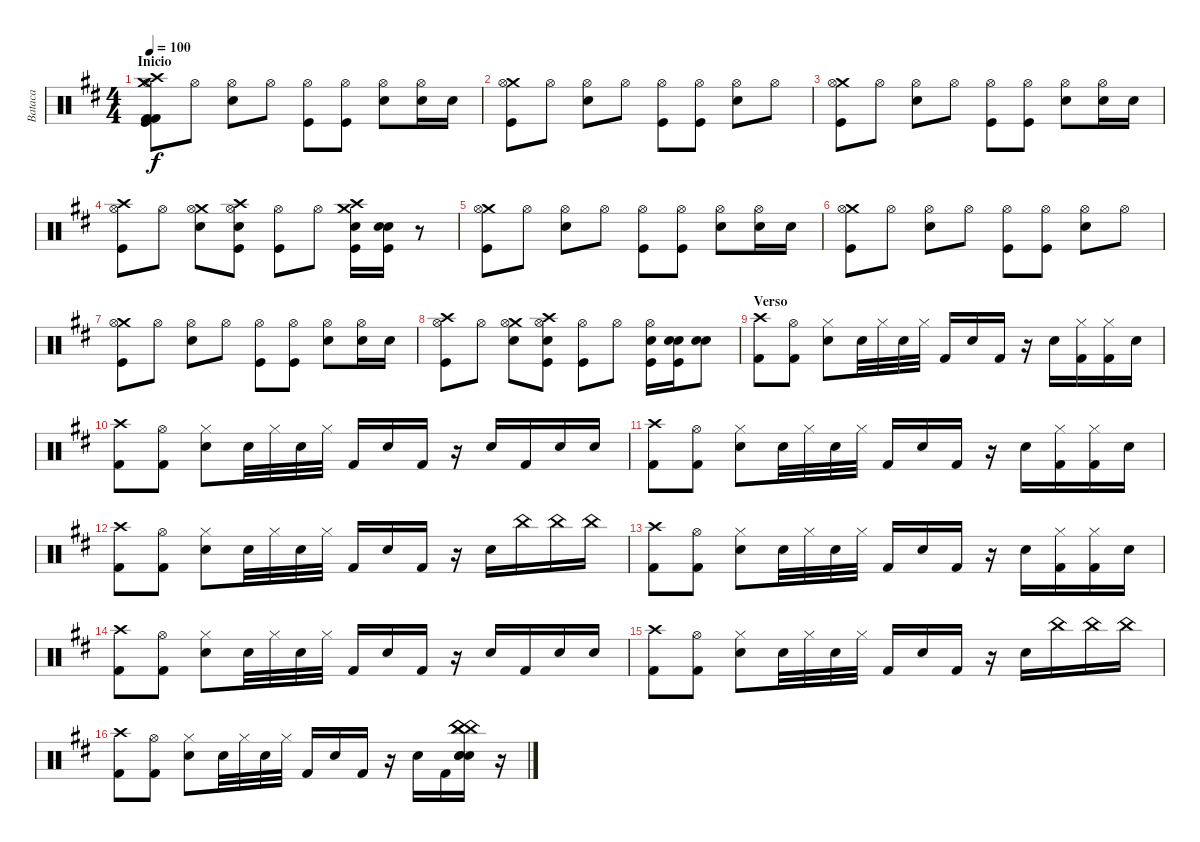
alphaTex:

\track ("Bataca" "Bataca") {instrument percussion}
\staff {score}
\articulation defaults
\ts (4 4)
\section ("" "Inicio")
\tempo 100
\clef neutral
\ks d
("Crash medium (hit)" "Hi-Hat (open)" "Kick (hit) 2" "Kick (hit)" "Crash high (hit)" "Kick (hit) 2").8{dy f} "Hi-Hat (open)".8 ("Hi-Hat (open)" "Snare (hit) 2").8 "Hi-Hat (open)".8 ("Hi-Hat (open)" "Kick (hit)").8 ("Hi-Hat (open)" "Kick (hit)").8 ("Hi-Hat (open)" "Snare (hit) 2").8 ("Hi-Hat (open)" "Snare (hit) 2").16 "Snare (hit) 2".16 |
("Crash medium (hit)" "Hi-Hat (open)" "Kick (hit)").8 "Hi-Hat (open)".8 ("Hi-Hat (open)" "Snare (hit) 2").8 "Hi-Hat (open)".8 ("Hi-Hat (open)" "Kick (hit)").8 ("Hi-Hat (open)" "Kick (hit)").8 ("Hi-Hat (open)" "Snare (hit) 2").8 "Hi-Hat (open)".8 |
("Crash medium (hit)" "Hi-Hat (open)" "Kick (hit)").8 "Hi-Hat (open)".8 ("Hi-Hat (open)" "Snare (hit) 2").8 "Hi-Hat (open)".8 ("Hi-Hat (open)" "Kick (hit)").8 ("Hi-Hat (open)" "Kick (hit)").8 ("Hi-Hat (open)" "Snare (hit) 2").8 ("Hi-Hat (open)" "Snare (hit) 2").16 "Snare (hit) 2".16 |
("Crash high (hit)" "Hi-Hat (open)" "Kick (hit)").8 "Hi-Hat (open)".8 ("Crash medium (hit)" "Hi-Hat (open)" "Snare (hit) 2").8 ("Crash high (hit)" "Hi-Hat (open)" "Snare (hit) 2" "Kick (hit)").8 ("Hi-Hat (open)" "Kick (hit)").8 "Hi-Hat (open)".8 ("Crash high (hit)" "Crash medium (hit)" "Snare (hit) 2" "Kick (hit)").16 ("Snare (hit) 2" "Snare (hit) 2" "Kick (hit)").16 r.8 |
("Crash medium (hit)" "Hi-Hat (open)" "Kick (hit)").8 "Hi-Hat (open)".8 ("Hi-Hat (open)" "Snare (hit) 2").8 "Hi-Hat (open)".8 ("Hi-Hat (open)" "Kick (hit)").8 ("Hi-Hat (open)" "Kick (hit)").8 ("Hi-Hat (open)" "Snare (hit) 2").8 ("Hi-Hat (open)" "Snare (hit) 2").16 "Snare (hit) 2".16 |
("Crash medium (hit)" "Hi-Hat (open)" "Kick (hit)").8 "Hi-Hat (open)".8 ("Hi-Hat (open)" "Snare (hit) 2").8 "Hi-Hat (open)".8 ("Hi-Hat (open)" "Kick (hit)").8 ("Hi-Hat (open)" "Kick (hit)").8 ("Hi-Hat (open)" "Snare (hit) 2").8 "Hi-Hat (open)".8 |
("Crash medium (hit)" "Hi-Hat (open)" "Kick (hit)").8 "Hi-Hat (open)".8 ("Hi-Hat (open)" "Snare (hit) 2").8 "Hi-Hat (open)".8 ("Hi-Hat (open)" "Kick (hit)").8 ("Hi-Hat (open)" "Kick (hit)").8 ("Hi-Hat (open)" "Snare (hit) 2").8 ("Hi-Hat (open)" "Snare (hit) 2").16 "Snare (hit) 2".16 |
("Crash high (hit)" "Hi-Hat (open)" "Kick (hit)").8 "Hi-Hat (open)".8 ("Crash medium (hit)" "Hi-Hat (open)" "Snare (hit) 2").8 ("Crash high (hit)" "Hi-Hat (open)" "Snare (hit) 2" "Kick (hit)").8 ("Hi-Hat (open)" "Kick (hit)").8 "Hi-Hat (open)".8 ("Hi-Hat (open)" "Snare (hit) 2" "Kick (hit)").16 ("Snare (hit) 2" "Snare (hit) 2" "Kick (hit)").16 ("Snare (hit) 2" "Snare (hit) 2").8 |
\section ("" "Verso")
("Crash high (hit)" "Kick (hit) 2").8 ("Hi-Hat (open)" "Kick (hit) 2").8 ("Hi-Hat (closed)" "Snare (hit) 2").8 "Snare (hit) 2".32 "Hi-Hat (closed)".32 "Snare (hit) 2".32 "Hi-Hat (closed)".32 "Kick (hit) 2".16 "Snare (hit) 2".16 "Kick (hit) 2".16 r.16 "Snare (hit) 2".16 ("Kick (hit) 2" "Hi-Hat (closed)").16 ("Kick (hit) 2" "Hi-Hat (closed)").16 "Snare (hit) 2".16 |
("Crash high (hit)" "Kick (hit) 2").8 ("Hi-Hat (open)" "Kick (hit) 2").8 ("Hi-Hat (closed)" "Snare (hit) 2").8 "Snare (hit) 2".32 "Hi-Hat (closed)".32 "Snare (hit) 2".32 "Hi-Hat (closed)".32 "Kick (hit) 2".16 "Snare (hit) 2".16 "Kick (hit) 2".16 r.16 "Snare (hit) 2".16 "Kick (hit) 2".16 "Snare (hit) 2".16 "Snare (hit) 2".16 |
("Crash high (hit)" "Kick (hit) 2").8 ("Hi-Hat (open)" "Kick (hit) 2").8 ("Hi-Hat (closed)" "Snare (hit) 2").8 "Snare (hit) 2".32 "Hi-Hat (closed)".32 "Snare (hit) 2".32 "Hi-Hat (closed)".32 "Kick (hit) 2".16 "Snare (hit) 2".16 "Kick (hit) 2".16 r.16 "Snare (hit) 2".16 ("Kick (hit) 2" "Hi-Hat (closed)").16 ("Kick (hit) 2" "Hi-Hat (closed)").16 "Snare (hit) 2".16 |
("Crash high (hit)" "Kick (hit) 2").8 ("Hi-Hat (open)" "Kick (hit) 2").8 ("Hi-Hat (closed)" "Snare (hit) 2").8 "Snare (hit) 2".32 "Hi-Hat (closed)".32 "Snare (hit) 2".32 "Hi-Hat (closed)".32 "Kick (hit) 2".16 "Snare (hit) 2".16 "Kick (hit) 2".16 r.16 "Snare (hit) 2".16 "China (hit)".16 "China (hit)".16 "China (hit)".16 |
("Crash high (hit)" "Kick (hit) 2").8 ("Hi-Hat (open)" "Kick (hit) 2").8 ("Hi-Hat (closed)" "Snare (hit) 2").8 "Snare (hit) 2".32 "Hi-Hat (closed)".32 "Snare (hit) 2".32 "Hi-Hat (closed)".32 "Kick (hit) 2".16 "Snare (hit) 2".16 "Kick (hit) 2".16 r.16 "Snare (hit) 2".16 ("Kick (hit) 2" "Hi-Hat (closed)").16 ("Kick (hit) 2" "Hi-Hat (closed)").16 "Snare (hit) 2".16 |
("Crash high (hit)" "Kick (hit) 2").8 ("Hi-Hat (open)" "Kick (hit) 2").8 ("Hi-Hat (closed)" "Snare (hit) 2").8 "Snare (hit) 2".32 "Hi-Hat (closed)".32 "Snare (hit) 2".32 "Hi-Hat (closed)".32 "Kick (hit) 2".16 "Snare (hit) 2".16 "Kick (hit) 2".16 r.16 "Snare (hit) 2".16 "Kick (hit) 2".16 "Snare (hit) 2".16 "Snare (hit) 2".16 |
("Crash high (hit)" "Kick (hit) 2").8 ("Hi-Hat (open)" "Kick (hit) 2").8 ("Hi-Hat (closed)" "Snare (hit) 2").8 "Snare (hit) 2".32 "Hi-Hat (closed)".32 "Snare (hit) 2".32 "Hi-Hat (closed)".32 "Kick (hit) 2".16 "Snare (hit) 2".16 "Kick (hit) 2".16 r.16 "Snare (hit) 2".16 "China (hit)".16 "China (hit)".16 "China (hit)".16 |
("Crash high (hit)" "Kick (hit) 2").8 ("Hi-Hat (open)" "Kick (hit) 2").8 ("Hi-Hat (closed)" "Snare (hit) 2").8 "Snare (hit) 2".32 "Hi-Hat (closed)".32 "Snare (hit) 2".32 "Hi-Hat (closed)".32 "Kick (hit) 2".16 "Snare (hit) 2".16 "Kick (hit) 2".16 r.16 "Snare (hit) 2".16 "Kick (hit) 2".16 ("Snare (hit) 2" "Snare (hit) 2" "Snare (hit) 2" "China (hit)" "China (hit)" "China (hit)").16 r.16
